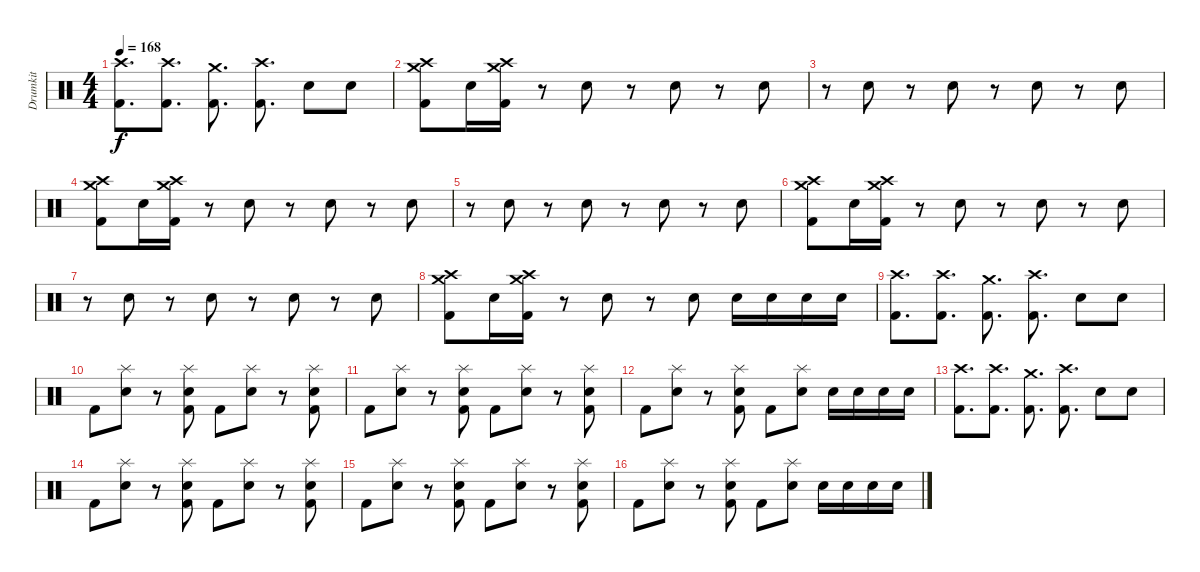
\track ("Drumkit" "Drumkit") {instrument percussion}
\staff {score}
\articulation defaults
\ts (4 4)
\tempo 168
\clef neutral
\ks c
("Crash high (hit)" "Kick (hit) 2").8{d dy f} ("Crash high (hit)" "Kick (hit) 2").8{d} ("Crash medium (hit)" "Kick (hit) 2").8{d} ("Crash high (hit)" "Kick (hit) 2").8{d} "Snare (hit) 2".8 "Snare (hit) 2".8 |
("Crash high (hit)" "Crash medium (hit)" "Kick (hit) 2").8 "Snare (hit) 2".16 ("Crash medium (hit)" "Crash high (hit)" "Kick (hit) 2").16 r.8 "Snare (hit) 2".8 r.8 "Snare (hit) 2".8 r.8 "Snare (hit) 2".8 |
r.8 "Snare (hit) 2".8 r.8 "Snare (hit) 2".8 r.8 "Snare (hit) 2".8 r.8 "Snare (hit) 2".8 |
("Crash high (hit)" "Crash medium (hit)" "Kick (hit) 2").8 "Snare (hit) 2".16 ("Crash medium (hit)" "Crash high (hit)" "Kick (hit) 2").16 r.8 "Snare (hit) 2".8 r.8 "Snare (hit) 2".8 r.8 "Snare (hit) 2".8 |
r.8 "Snare (hit) 2".8 r.8 "Snare (hit) 2".8 r.8 "Snare (hit) 2".8 r.8 "Snare (hit) 2".8 |
("Crash high (hit)" "Crash medium (hit)" "Kick (hit) 2").8 "Snare (hit) 2".16 ("Crash medium (hit)" "Crash high (hit)" "Kick (hit) 2").16 r.8 "Snare (hit) 2".8 r.8 "Snare (hit) 2".8 r.8 "Snare (hit) 2".8 |
r.8 "Snare (hit) 2".8 r.8 "Snare (hit) 2".8 r.8 "Snare (hit) 2".8 r.8 "Snare (hit) 2".8 |
("Crash high (hit)" "Crash medium (hit)" "Kick (hit) 2").8 "Snare (hit) 2".16 ("Crash medium (hit)" "Crash high (hit)" "Kick (hit) 2").16 r.8 "Snare (hit) 2".8 r.8 "Snare (hit) 2".8 "Snare (hit) 2".16 "Snare (hit) 2".16 "Snare (hit) 2".16 "Snare (hit) 2".16 |
("Crash high (hit)" "Kick (hit) 2").8{d} ("Crash high (hit)" "Kick (hit) 2").8{d} ("Crash medium (hit)" "Kick (hit) 2").8{d} ("Crash high (hit)" "Kick (hit) 2").8{d} "Snare (hit) 2".8 "Snare (hit) 2".8 |
"Kick (hit) 2".8 ("Splash (hit)" "Snare (hit) 2").8 r.8 ("Splash (hit)" "Snare (hit) 2" "Kick (hit) 2").8 "Kick (hit) 2".8 ("Splash (hit)" "Snare (hit) 2").8 r.8 ("Splash (hit)" "Snare (hit) 2" "Kick (hit) 2").8 |
"Kick (hit) 2".8 ("Splash (hit)" "Snare (hit) 2").8 r.8 ("Splash (hit)" "Snare (hit) 2" "Kick (hit) 2").8 "Kick (hit) 2".8 ("Splash (hit)" "Snare (hit) 2").8 r.8 ("Splash (hit)" "Snare (hit) 2" "Kick (hit) 2").8 |
"Kick (hit) 2".8 ("Splash (hit)" "Snare (hit) 2").8 r.8 ("Splash (hit)" "Snare (hit) 2" "Kick (hit) 2").8 "Kick (hit) 2".8 ("Splash (hit)" "Snare (hit) 2").8 "Snare (hit) 2".16 "Snare (hit) 2".16 "Snare (hit) 2".16 "Snare (hit) 2".16 |
("Crash high (hit)" "Kick (hit) 2").8{d} ("Crash high (hit)" "Kick (hit) 2").8{d} ("Crash medium (hit)" "Kick (hit) 2").8{d} ("Crash high (hit)" "Kick (hit) 2").8{d} "Snare (hit) 2".8 "Snare (hit) 2".8 |
"Kick (hit) 2".8 ("Splash (hit)" "Snare (hit) 2").8 r.8 ("Splash (hit)" "Snare (hit) 2" "Kick (hit) 2").8 "Kick (hit) 2".8 ("Splash (hit)" "Snare (hit) 2").8 r.8 ("Splash (hit)" "Snare (hit) 2" "Kick (hit) 2").8 |
"Kick (hit) 2".8 ("Splash (hit)" "Snare (hit) 2").8 r.8 ("Splash (hit)" "Snare (hit) 2" "Kick (hit) 2").8 "Kick (hit) 2".8 ("Splash (hit)" "Snare (hit) 2").8 r.8 ("Splash (hit)" "Snare (hit) 2" "Kick (hit) 2").8 |
"Kick (hit) 2".8 ("Splash (hit)" "Snare (hit) 2").8 r.8 ("Splash (hit)" "Snare (hit) 2" "Kick (hit) 2").8 "Kick (hit) 2".8 ("Splash (hit)" "Snare (hit) 2").8 "Snare (hit) 2".16 "Snare (hit) 2".16 "Snare (hit) 2".16 "Snare (hit) 2".16
